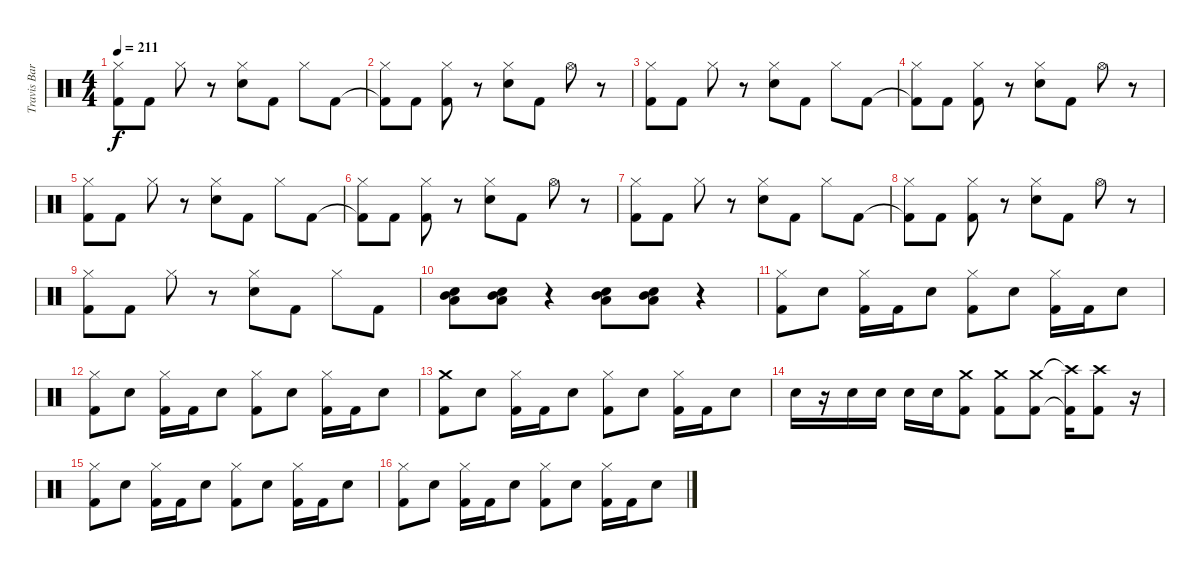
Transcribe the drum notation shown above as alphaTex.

\track ("Travis Barker (Drums)" "Travis Bar") {instrument percussion}
\staff {score}
\articulation defaults
\ts (4 4)
\tempo 211
\clef neutral
\ks c
("Kick (hit) 2" "Hi-Hat (closed)").8{dy f} "Kick (hit) 2".8 "Hi-Hat (closed)".8 r.8 ("Electric Snare (hit)" "Hi-Hat (closed)").8 "Kick (hit) 2".8 "Hi-Hat (closed)".8 "Kick (hit) 2".8 |
("Kick (hit) 2"{t} "Hi-Hat (closed)").8 "Kick (hit) 2".8 ("Kick (hit) 2" "Hi-Hat (closed)").8 r.8 ("Electric Snare (hit)" "Hi-Hat (closed)").8 "Kick (hit) 2".8 "Hi-Hat (open)".8 r.8 |
("Kick (hit) 2" "Hi-Hat (closed)").8 "Kick (hit) 2".8 "Hi-Hat (closed)".8 r.8 ("Electric Snare (hit)" "Hi-Hat (closed)").8 "Kick (hit) 2".8 "Hi-Hat (closed)".8 "Kick (hit) 2".8 |
("Kick (hit) 2"{t} "Hi-Hat (closed)").8 "Kick (hit) 2".8 ("Kick (hit) 2" "Hi-Hat (closed)").8 r.8 ("Electric Snare (hit)" "Hi-Hat (closed)").8 "Kick (hit) 2".8 "Hi-Hat (open)".8 r.8 |
("Kick (hit) 2" "Hi-Hat (closed)").8 "Kick (hit) 2".8 "Hi-Hat (closed)".8 r.8 ("Electric Snare (hit)" "Hi-Hat (closed)").8 "Kick (hit) 2".8 "Hi-Hat (closed)".8 "Kick (hit) 2".8 |
("Kick (hit) 2"{t} "Hi-Hat (closed)").8 "Kick (hit) 2".8 ("Kick (hit) 2" "Hi-Hat (closed)").8 r.8 ("Electric Snare (hit)" "Hi-Hat (closed)").8 "Kick (hit) 2".8 "Hi-Hat (open)".8 r.8 |
("Kick (hit) 2" "Hi-Hat (closed)").8 "Kick (hit) 2".8 "Hi-Hat (closed)".8 r.8 ("Electric Snare (hit)" "Hi-Hat (closed)").8 "Kick (hit) 2".8 "Hi-Hat (closed)".8 "Kick (hit) 2".8 |
("Kick (hit) 2"{t} "Hi-Hat (closed)").8 "Kick (hit) 2".8 ("Kick (hit) 2" "Hi-Hat (closed)").8 r.8 ("Electric Snare (hit)" "Hi-Hat (closed)").8 "Kick (hit) 2".8 "Hi-Hat (open)".8 r.8 |
("Kick (hit) 2" "Hi-Hat (closed)").8 "Kick (hit) 2".8 "Hi-Hat (closed)".8 r.8 ("Electric Snare (hit)" "Hi-Hat (closed)").8 "Kick (hit) 2".8 "Hi-Hat (closed)".8 "Kick (hit) 2".8 |
("Electric Snare (hit)" "Mid Tom (hit)" "Low Floor Tom (hit)").8 ("Electric Snare (hit)" "Mid Tom (hit)" "Low Floor Tom (hit)").8 r.4 ("Electric Snare (hit)" "Mid Tom (hit)" "Low Floor Tom (hit)").8 ("Electric Snare (hit)" "Mid Tom (hit)" "Low Floor Tom (hit)").8 r.4 |
("Kick (hit) 2" "Hi-Hat (closed)").8 "Electric Snare (hit)".8 ("Kick (hit) 2" "Hi-Hat (closed)").16 "Kick (hit) 2".16 "Electric Snare (hit)".8 ("Kick (hit) 2" "Hi-Hat (closed)").8 "Electric Snare (hit)".8 ("Kick (hit) 2" "Hi-Hat (closed)").16 "Kick (hit) 2".16 "Electric Snare (hit)".8 |
("Kick (hit) 2" "Hi-Hat (closed)").8 "Electric Snare (hit)".8 ("Kick (hit) 2" "Hi-Hat (closed)").16 "Kick (hit) 2".16 "Electric Snare (hit)".8 ("Kick (hit) 2" "Hi-Hat (closed)").8 "Electric Snare (hit)".8 ("Kick (hit) 2" "Hi-Hat (closed)").16 "Kick (hit) 2".16 "Electric Snare (hit)".8 |
("Kick (hit) 2" "Crash medium (hit)").8 "Electric Snare (hit)".8 ("Kick (hit) 2" "Hi-Hat (closed)").16 "Kick (hit) 2".16 "Electric Snare (hit)".8 ("Kick (hit) 2" "Hi-Hat (closed)").8 "Electric Snare (hit)".8 ("Kick (hit) 2" "Hi-Hat (closed)").16 "Kick (hit) 2".16 "Electric Snare (hit)".8 |
"Electric Snare (hit)".16 r.16 "Electric Snare (hit)".16 "Electric Snare (hit)".16 "Electric Snare (hit)".16 "Electric Snare (hit)".16 ("Crash medium (hit)" "Kick (hit) 2").8 ("Crash medium (hit)" "Kick (hit) 2").8 ("Crash medium (hit)" "Kick (hit) 2").8 ("Crash high (hit)"{t} "Kick (hit) 2"{t}).16 ("Crash high (hit)" "Kick (hit) 2").8 r.16 |
("Kick (hit) 2" "Hi-Hat (closed)").8 "Electric Snare (hit)".8 ("Kick (hit) 2" "Hi-Hat (closed)").16 "Kick (hit) 2".16 "Electric Snare (hit)".8 ("Kick (hit) 2" "Hi-Hat (closed)").8 "Electric Snare (hit)".8 ("Kick (hit) 2" "Hi-Hat (closed)").16 "Kick (hit) 2".16 "Electric Snare (hit)".8 |
("Kick (hit) 2" "Hi-Hat (closed)").8 "Electric Snare (hit)".8 ("Kick (hit) 2" "Hi-Hat (closed)").16 "Kick (hit) 2".16 "Electric Snare (hit)".8 ("Kick (hit) 2" "Hi-Hat (closed)").8 "Electric Snare (hit)".8 ("Kick (hit) 2" "Hi-Hat (closed)").16 "Kick (hit) 2".16 "Electric Snare (hit)".8
